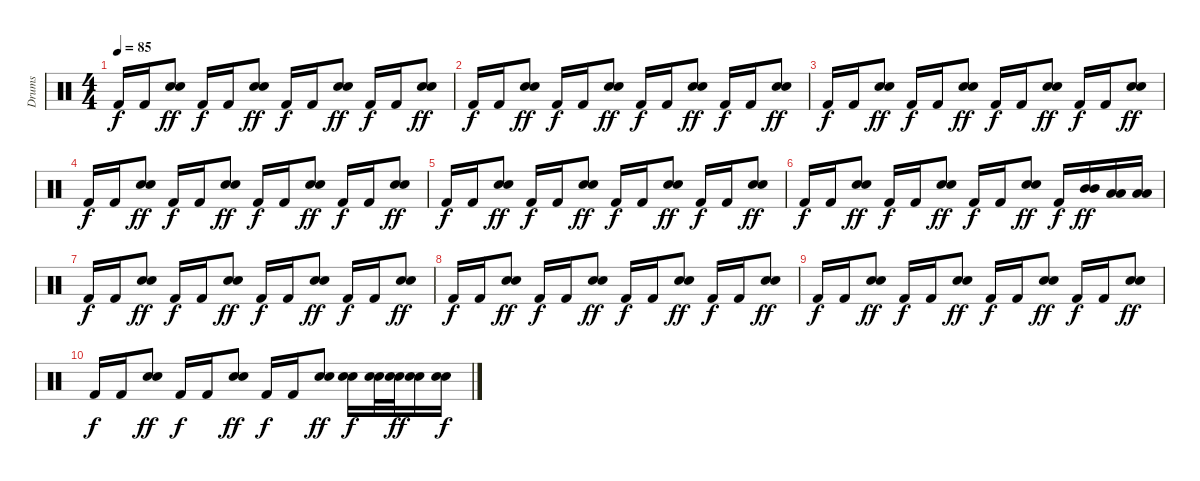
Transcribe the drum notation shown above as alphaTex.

\track ("Drums" "Drums") {instrument percussion}
\staff {score}
\articulation defaults
\ts (4 4)
\tempo 85
\clef neutral
\ks c "Kick (hit) 2".16{dy f} "Kick (hit) 2".16
("Snare (hit) 2" "Snare (hit) 2").8{dy ff} "Kick (hit) 2".16{dy f} "Kick (hit) 2".16 ("Snare (hit) 2" "Snare (hit) 2").8{dy ff} "Kick (hit) 2".16{dy f} "Kick (hit) 2".16 ("Snare (hit) 2" "Snare (hit) 2").8{dy ff} "Kick (hit) 2".16{dy f} "Kick (hit) 2".16 ("Snare (hit) 2" "Snare (hit) 2").8{dy ff} |
"Kick (hit) 2".16{dy f} "Kick (hit) 2".16 ("Snare (hit) 2" "Snare (hit) 2").8{dy ff} "Kick (hit) 2".16{dy f} "Kick (hit) 2".16 ("Snare (hit) 2" "Snare (hit) 2").8{dy ff} "Kick (hit) 2".16{dy f} "Kick (hit) 2".16 ("Snare (hit) 2" "Snare (hit) 2").8{dy ff} "Kick (hit) 2".16{dy f} "Kick (hit) 2".16 ("Snare (hit) 2" "Snare (hit) 2").8{dy ff} |
"Kick (hit) 2".16{dy f} "Kick (hit) 2".16 ("Snare (hit) 2" "Snare (hit) 2").8{dy ff} "Kick (hit) 2".16{dy f} "Kick (hit) 2".16 ("Snare (hit) 2" "Snare (hit) 2").8{dy ff} "Kick (hit) 2".16{dy f} "Kick (hit) 2".16 ("Snare (hit) 2" "Snare (hit) 2").8{dy ff} "Kick (hit) 2".16{dy f} "Kick (hit) 2".16 ("Snare (hit) 2" "Snare (hit) 2").8{dy ff} |
"Kick (hit) 2".16{dy f} "Kick (hit) 2".16 ("Snare (hit) 2" "Snare (hit) 2").8{dy ff} "Kick (hit) 2".16{dy f} "Kick (hit) 2".16 ("Snare (hit) 2" "Snare (hit) 2").8{dy ff} "Kick (hit) 2".16{dy f} "Kick (hit) 2".16 ("Snare (hit) 2" "Snare (hit) 2").8{dy ff} "Kick (hit) 2".16{dy f} "Kick (hit) 2".16 ("Snare (hit) 2" "Snare (hit) 2").8{dy ff} |
"Kick (hit) 2".16{dy f} "Kick (hit) 2".16 ("Snare (hit) 2" "Snare (hit) 2").8{dy ff} "Kick (hit) 2".16{dy f} "Kick (hit) 2".16 ("Snare (hit) 2" "Snare (hit) 2").8{dy ff} "Kick (hit) 2".16{dy f} "Kick (hit) 2".16 ("Snare (hit) 2" "Snare (hit) 2").8{dy ff} "Kick (hit) 2".16{dy f} "Kick (hit) 2".16 ("Snare (hit) 2" "Snare (hit) 2").8{dy ff} |
"Kick (hit) 2".16{dy f} "Kick (hit) 2".16 ("Snare (hit) 2" "Snare (hit) 2").8{dy ff} "Kick (hit) 2".16{dy f} "Kick (hit) 2".16 ("Snare (hit) 2" "Snare (hit) 2").8{dy ff} "Kick (hit) 2".16{dy f} "Kick (hit) 2".16 ("Snare (hit) 2" "Snare (hit) 2").8{dy ff} "Kick (hit) 2".16{dy f} ("Mid Tom (hit)" "Mid Tom (hit)").16{dy ff} ("Low Tom (hit)" "Low Tom (hit)").16 ("Low Floor Tom (hit)" "Low Floor Tom (hit)").16 |
"Kick (hit) 2".16{dy f} "Kick (hit) 2".16 ("Snare (hit) 2" "Snare (hit) 2").8{dy ff} "Kick (hit) 2".16{dy f} "Kick (hit) 2".16 ("Snare (hit) 2" "Snare (hit) 2").8{dy ff} "Kick (hit) 2".16{dy f} "Kick (hit) 2".16 ("Snare (hit) 2" "Snare (hit) 2").8{dy ff} "Kick (hit) 2".16{dy f} "Kick (hit) 2".16 ("Snare (hit) 2" "Snare (hit) 2").8{dy ff} |
"Kick (hit) 2".16{dy f} "Kick (hit) 2".16 ("Snare (hit) 2" "Snare (hit) 2").8{dy ff} "Kick (hit) 2".16{dy f} "Kick (hit) 2".16 ("Snare (hit) 2" "Snare (hit) 2").8{dy ff} "Kick (hit) 2".16{dy f} "Kick (hit) 2".16 ("Snare (hit) 2" "Snare (hit) 2").8{dy ff} "Kick (hit) 2".16{dy f} "Kick (hit) 2".16 ("Snare (hit) 2" "Snare (hit) 2").8{dy ff} |
"Kick (hit) 2".16{dy f} "Kick (hit) 2".16 ("Snare (hit) 2" "Snare (hit) 2").8{dy ff} "Kick (hit) 2".16{dy f} "Kick (hit) 2".16 ("Snare (hit) 2" "Snare (hit) 2").8{dy ff} "Kick (hit) 2".16{dy f} "Kick (hit) 2".16 ("Snare (hit) 2" "Snare (hit) 2").8{dy ff} "Kick (hit) 2".16{dy f} "Kick (hit) 2".16 ("Snare (hit) 2" "Snare (hit) 2").8{dy ff} |
"Kick (hit) 2".16{dy f} "Kick (hit) 2".16 ("Snare (hit) 2" "Snare (hit) 2").8{dy ff} "Kick (hit) 2".16{dy f} "Kick (hit) 2".16 ("Snare (hit) 2" "Snare (hit) 2").8{dy ff} "Kick (hit) 2".16{dy f} "Kick (hit) 2".16 ("Snare (hit) 2" "Snare (hit) 2").8{dy ff} ("Snare (hit) 2" "Snare (hit) 2").16{dy f} ("Snare (hit) 2" "Snare (hit) 2").32 ("Snare (hit) 2" "Snare (hit) 2").32{dy ff} ("Snare (hit) 2" "Snare (hit) 2").16 ("Snare (hit) 2" "Snare (hit) 2").16{dy f}
